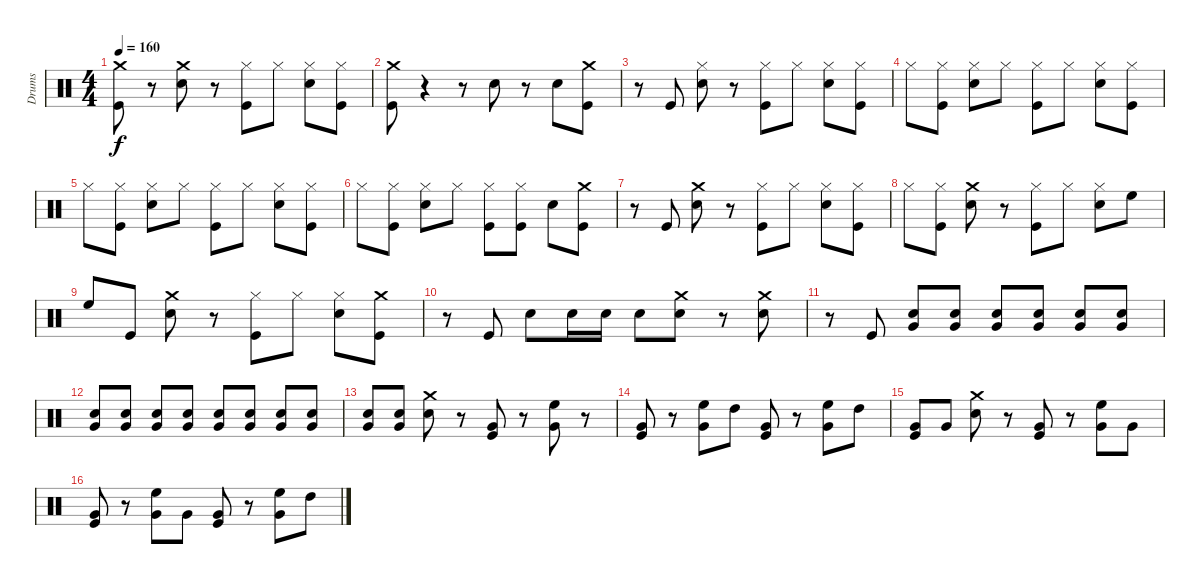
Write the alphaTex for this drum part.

\track ("Drums" "Drums") {instrument percussion}
\staff {score}
\articulation defaults
\ts (4 4)
\tempo 160
\clef neutral
\ks c
("Crash medium (hit)" "Kick (hit)").8{dy f} r.8 ("Snare (hit) 2" "Crash medium (hit)").8 r.8 ("Hi-Hat (closed)" "Kick (hit)").8 "Hi-Hat (closed)".8 ("Snare (hit) 2" "Hi-Hat (closed)").8 ("Kick (hit)" "Hi-Hat (closed)").8 |
("Crash medium (hit)" "Kick (hit)").8 r.4 r.8 "Snare (hit) 2".8 r.8 "Snare (hit) 2".8 ("Crash medium (hit)" "Kick (hit)").8 |
r.8 "Kick (hit)".8 ("Hi-Hat (closed)" "Snare (hit) 2").8 r.8 ("Hi-Hat (closed)" "Kick (hit)").8 "Hi-Hat (closed)".8 ("Snare (hit) 2" "Hi-Hat (closed)").8 ("Kick (hit)" "Hi-Hat (closed)").8 |
"Hi-Hat (closed)".8 ("Kick (hit)" "Hi-Hat (closed)").8 ("Snare (hit) 2" "Hi-Hat (closed)").8 "Hi-Hat (closed)".8 ("Hi-Hat (closed)" "Kick (hit)").8 "Hi-Hat (closed)".8 ("Snare (hit) 2" "Hi-Hat (closed)").8 ("Kick (hit)" "Hi-Hat (closed)").8 |
"Hi-Hat (closed)".8 ("Kick (hit)" "Hi-Hat (closed)").8 ("Snare (hit) 2" "Hi-Hat (closed)").8 "Hi-Hat (closed)".8 ("Hi-Hat (closed)" "Kick (hit)").8 "Hi-Hat (closed)".8 ("Snare (hit) 2" "Hi-Hat (closed)").8 ("Kick (hit)" "Hi-Hat (closed)").8 |
"Hi-Hat (closed)".8 ("Kick (hit)" "Hi-Hat (closed)").8 ("Snare (hit) 2" "Hi-Hat (closed)").8 "Hi-Hat (closed)".8 ("Hi-Hat (closed)" "Kick (hit)").8 ("Hi-Hat (closed)" "Kick (hit)").8 "Snare (hit) 2".8 ("Crash medium (hit)" "Kick (hit)").8 |
r.8 "Kick (hit)".8 ("Crash medium (hit)" "Snare (hit) 2").8 r.8 ("Hi-Hat (closed)" "Kick (hit)").8 "Hi-Hat (closed)".8 ("Snare (hit) 2" "Hi-Hat (closed)").8 ("Kick (hit)" "Hi-Hat (closed)").8 |
"Hi-Hat (closed)".8 ("Hi-Hat (closed)" "Kick (hit)").8 ("Crash medium (hit)" "Snare (hit) 2").8 r.8 ("Hi-Hat (closed)" "Kick (hit)").8 "Hi-Hat (closed)".8 ("Hi-Hat (closed)" "Snare (hit) 2").8 "High Floor Tom (hit)".8 |
"High Floor Tom (hit)".8 "Kick (hit)".8 ("Crash medium (hit)" "Snare (hit) 2").8 r.8 ("Kick (hit)" "Hi-Hat (closed)").8 "Hi-Hat (closed)".8 ("Hi-Hat (closed)" "Snare (hit) 2").8 ("Crash medium (hit)" "Kick (hit)").8 |
r.8 "Kick (hit)".8 "Snare (hit) 2".8 "Snare (hit) 2".16 "Snare (hit) 2".16 "Snare (hit) 2".8 ("Crash medium (hit)" "Snare (hit) 2").8 r.8 ("Snare (hit) 2" "Crash medium (hit)").8 |
r.8 "Kick (hit)".8 ("Very Low Tom (hit)" "Snare (hit) 2").8 ("Very Low Tom (hit)" "Snare (hit) 2").8 ("Snare (hit) 2" "Very Low Tom (hit)").8 ("Snare (hit) 2" "Very Low Tom (hit)").8 ("Snare (hit) 2" "Very Low Tom (hit)").8 ("Snare (hit) 2" "Very Low Tom (hit)").8 |
("Snare (hit) 2" "Very Low Tom (hit)").8 ("Snare (hit) 2" "Very Low Tom (hit)").8 ("Snare (hit) 2" "Very Low Tom (hit)").8 ("Snare (hit) 2" "Very Low Tom (hit)").8 ("Snare (hit) 2" "Very Low Tom (hit)").8 ("Snare (hit) 2" "Very Low Tom (hit)").8 ("Snare (hit) 2" "Very Low Tom (hit)").8 ("Snare (hit) 2" "Very Low Tom (hit)").8 |
("Very Low Tom (hit)" "Snare (hit) 2").8 ("Very Low Tom (hit)" "Snare (hit) 2").8 ("Crash medium (hit)" "Snare (hit) 2").8 r.8 ("Kick (hit)" "Very Low Tom (hit)").8 r.8 ("High Floor Tom (hit)" "Very Low Tom (hit)").8 r.8 |
("Kick (hit)" "Very Low Tom (hit)").8 r.8 ("High Floor Tom (hit)" "Very Low Tom (hit)").8 "High Tom (hit)".8 ("Kick (hit)" "Very Low Tom (hit)").8 r.8 ("High Floor Tom (hit)" "Very Low Tom (hit)").8 "High Tom (hit)".8 |
("Kick (hit)" "Very Low Tom (hit)").8 "Very Low Tom (hit)".8 ("Crash medium (hit)" "Snare (hit) 2").8 r.8 ("Kick (hit)" "Very Low Tom (hit)").8 r.8 ("High Floor Tom (hit)" "Very Low Tom (hit)").8 "Very Low Tom (hit)".8 |
("Kick (hit)" "Very Low Tom (hit)").8 r.8 ("High Floor Tom (hit)" "Very Low Tom (hit)").8 "Very Low Tom (hit)".8 ("Kick (hit)" "Very Low Tom (hit)").8 r.8 ("High Floor Tom (hit)" "Very Low Tom (hit)").8 "High Tom (hit)".8
